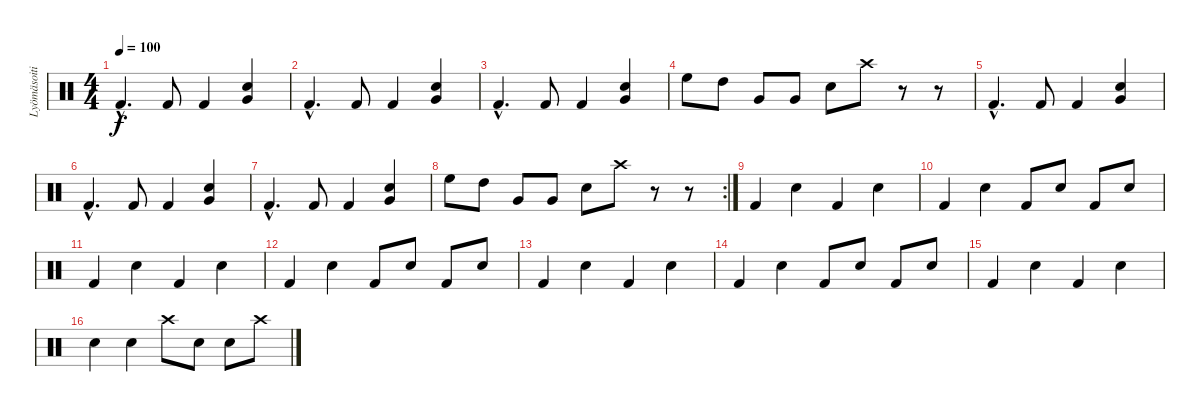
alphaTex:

\track ("Lyömäsoitin" "Lyömäsoiti") {instrument percussion}
\staff {score}
\articulation defaults
\ts (4 4)
\tempo 100
\clef neutral
\ks c "Kick (hit) 2"{hac}.4{d dy f} "Kick (hit) 2".8 "Kick (hit) 2".4
("Snare (hit) 2" "Very Low Tom (hit)").4 |
"Kick (hit) 2"{hac}.4{d} "Kick (hit) 2".8 "Kick (hit) 2".4 ("Snare (hit) 2" "Very Low Tom (hit)").4 |
"Kick (hit) 2"{hac}.4{d} "Kick (hit) 2".8 "Kick (hit) 2".4 ("Snare (hit) 2" "Very Low Tom (hit)").4 |
"High Floor Tom (hit)".8 "High Tom (hit)".8 "Very Low Tom (hit)".8 "Very Low Tom (hit)".8 "Snare (hit) 2".8 "Crash high (hit)".8 r.8 r.8 |
"Kick (hit) 2"{hac}.4{d} "Kick (hit) 2".8 "Kick (hit) 2".4 ("Snare (hit) 2" "Very Low Tom (hit)").4 |
"Kick (hit) 2"{hac}.4{d} "Kick (hit) 2".8 "Kick (hit) 2".4 ("Snare (hit) 2" "Very Low Tom (hit)").4 |
"Kick (hit) 2"{hac}.4{d} "Kick (hit) 2".8 "Kick (hit) 2".4 ("Snare (hit) 2" "Very Low Tom (hit)").4 |
\rc 2 "High Floor Tom (hit)".8 "High Tom (hit)".8 "Very Low Tom (hit)".8 "Very Low Tom (hit)".8 "Snare (hit) 2".8 "Crash high (hit)".8
r.8 r.8 |
"Kick (hit) 2".4 "Snare (hit) 2".4 "Kick (hit) 2".4 "Snare (hit) 2".4 |
"Kick (hit) 2".4 "Snare (hit) 2".4 "Kick (hit) 2".8 "Snare (hit) 2".8 "Kick (hit) 2".8 "Snare (hit) 2".8 |
"Kick (hit) 2".4 "Snare (hit) 2".4 "Kick (hit) 2".4 "Snare (hit) 2".4 |
"Kick (hit) 2".4 "Snare (hit) 2".4 "Kick (hit) 2".8 "Snare (hit) 2".8 "Kick (hit) 2".8 "Snare (hit) 2".8 |
"Kick (hit) 2".4 "Snare (hit) 2".4 "Kick (hit) 2".4 "Snare (hit) 2".4 |
"Kick (hit) 2".4 "Snare (hit) 2".4 "Kick (hit) 2".8 "Snare (hit) 2".8 "Kick (hit) 2".8 "Snare (hit) 2".8 |
"Kick (hit) 2".4 "Snare (hit) 2".4 "Kick (hit) 2".4 "Snare (hit) 2".4 |
"Snare (hit) 2".4 "Snare (hit) 2".4 "Crash high (hit)".8 "Snare (hit) 2".8 "Snare (hit) 2".8 "Crash high (hit)".8
